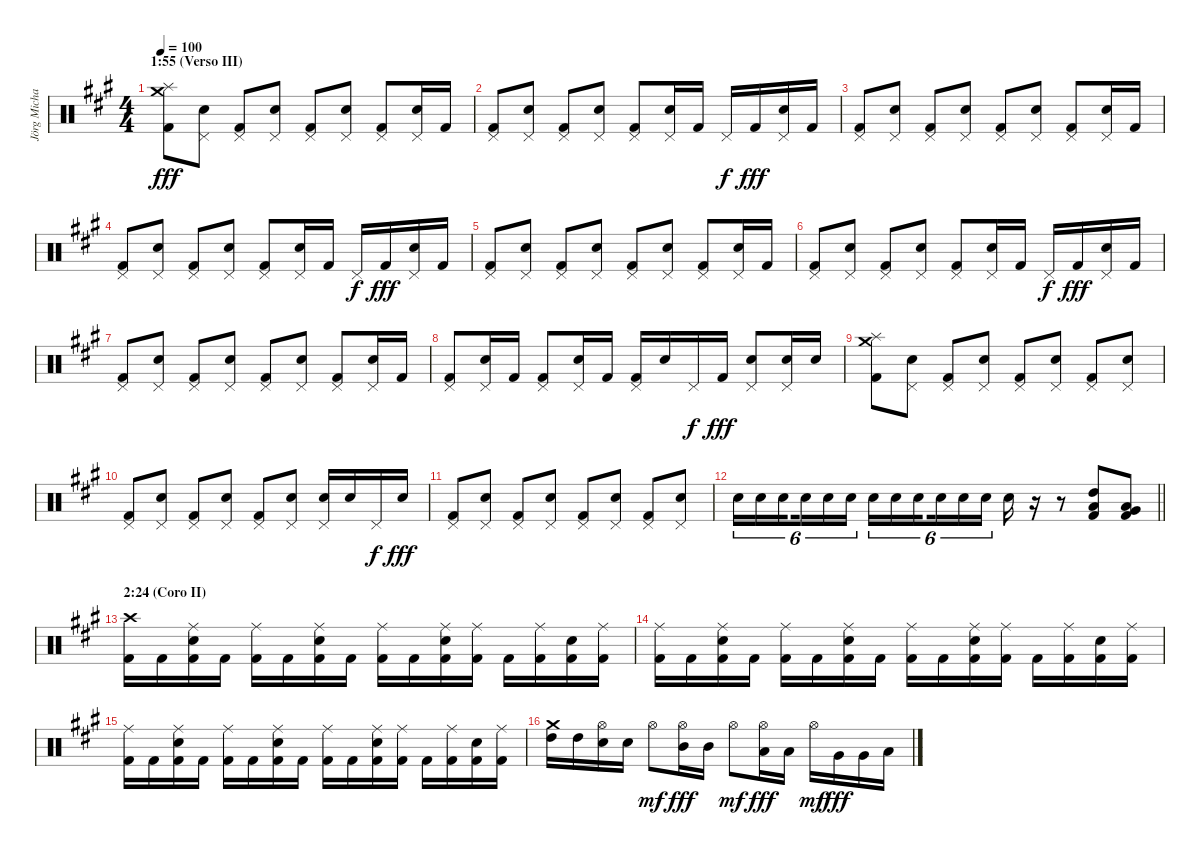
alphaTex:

\track ("Jörg Michael (Batería)" "Jörg Micha") {instrument percussion}
\staff {score}
\articulation defaults
\ts (4 4)
\section ("" "1:55 (Verso III)")
\tempo 100
\clef neutral
\ks a
("Crash medium (hit)" "Splash (hit)" "Kick (hit) 2").8{dy fff} ("Pedal Hi-Hat (hit)" "Snare (hit) 2").8 ("Pedal Hi-Hat (hit)" "Kick (hit) 2").8 ("Pedal Hi-Hat (hit)" "Snare (hit) 2").8 ("Pedal Hi-Hat (hit)" "Kick (hit) 2").8 ("Pedal Hi-Hat (hit)" "Snare (hit) 2").8 ("Pedal Hi-Hat (hit)" "Kick (hit) 2").8 ("Pedal Hi-Hat (hit)" "Snare (hit) 2").16 "Kick (hit) 2".16 |
("Pedal Hi-Hat (hit)" "Kick (hit) 2").8 ("Pedal Hi-Hat (hit)" "Snare (hit) 2").8 ("Pedal Hi-Hat (hit)" "Kick (hit) 2").8 ("Pedal Hi-Hat (hit)" "Snare (hit) 2").8 ("Pedal Hi-Hat (hit)" "Kick (hit) 2").8 ("Pedal Hi-Hat (hit)" "Snare (hit) 2").16 "Kick (hit) 2".16 "Pedal Hi-Hat (hit)".16{dy f} "Kick (hit) 2".16{dy fff} ("Pedal Hi-Hat (hit)" "Snare (hit) 2").16 "Kick (hit) 2".16 |
("Pedal Hi-Hat (hit)" "Kick (hit) 2").8 ("Pedal Hi-Hat (hit)" "Snare (hit) 2").8 ("Pedal Hi-Hat (hit)" "Kick (hit) 2").8 ("Pedal Hi-Hat (hit)" "Snare (hit) 2").8 ("Pedal Hi-Hat (hit)" "Kick (hit) 2").8 ("Pedal Hi-Hat (hit)" "Snare (hit) 2").8 ("Pedal Hi-Hat (hit)" "Kick (hit) 2").8 ("Pedal Hi-Hat (hit)" "Snare (hit) 2").16 "Kick (hit) 2".16 |
("Pedal Hi-Hat (hit)" "Kick (hit) 2").8 ("Pedal Hi-Hat (hit)" "Snare (hit) 2").8 ("Pedal Hi-Hat (hit)" "Kick (hit) 2").8 ("Pedal Hi-Hat (hit)" "Snare (hit) 2").8 ("Pedal Hi-Hat (hit)" "Kick (hit) 2").8 ("Pedal Hi-Hat (hit)" "Snare (hit) 2").16 "Kick (hit) 2".16 "Pedal Hi-Hat (hit)".16{dy f} "Kick (hit) 2".16{dy fff} ("Pedal Hi-Hat (hit)" "Snare (hit) 2").16 "Kick (hit) 2".16 |
("Pedal Hi-Hat (hit)" "Kick (hit) 2").8 ("Pedal Hi-Hat (hit)" "Snare (hit) 2").8 ("Pedal Hi-Hat (hit)" "Kick (hit) 2").8 ("Pedal Hi-Hat (hit)" "Snare (hit) 2").8 ("Pedal Hi-Hat (hit)" "Kick (hit) 2").8 ("Pedal Hi-Hat (hit)" "Snare (hit) 2").8 ("Pedal Hi-Hat (hit)" "Kick (hit) 2").8 ("Pedal Hi-Hat (hit)" "Snare (hit) 2").16 "Kick (hit) 2".16 |
("Pedal Hi-Hat (hit)" "Kick (hit) 2").8 ("Pedal Hi-Hat (hit)" "Snare (hit) 2").8 ("Pedal Hi-Hat (hit)" "Kick (hit) 2").8 ("Pedal Hi-Hat (hit)" "Snare (hit) 2").8 ("Pedal Hi-Hat (hit)" "Kick (hit) 2").8 ("Pedal Hi-Hat (hit)" "Snare (hit) 2").16 "Kick (hit) 2".16 "Pedal Hi-Hat (hit)".16{dy f} "Kick (hit) 2".16{dy fff} ("Pedal Hi-Hat (hit)" "Snare (hit) 2").16 "Kick (hit) 2".16 |
("Pedal Hi-Hat (hit)" "Kick (hit) 2").8 ("Pedal Hi-Hat (hit)" "Snare (hit) 2").8 ("Pedal Hi-Hat (hit)" "Kick (hit) 2").8 ("Pedal Hi-Hat (hit)" "Snare (hit) 2").8 ("Pedal Hi-Hat (hit)" "Kick (hit) 2").8 ("Pedal Hi-Hat (hit)" "Snare (hit) 2").8 ("Pedal Hi-Hat (hit)" "Kick (hit) 2").8 ("Pedal Hi-Hat (hit)" "Snare (hit) 2").16 "Kick (hit) 2".16 |
("Pedal Hi-Hat (hit)" "Kick (hit) 2").8 ("Pedal Hi-Hat (hit)" "Snare (hit) 2").16 "Kick (hit) 2".16 ("Pedal Hi-Hat (hit)" "Kick (hit) 2").8 ("Pedal Hi-Hat (hit)" "Snare (hit) 2").16 "Kick (hit) 2".16 ("Pedal Hi-Hat (hit)" "Kick (hit) 2").16 "Snare (hit) 2".16 "Pedal Hi-Hat (hit)".16{dy f} "Kick (hit) 2".16{dy fff} ("Pedal Hi-Hat (hit)" "Snare (hit) 2").8 ("Pedal Hi-Hat (hit)" "Snare (hit) 2").16 "Snare (hit) 2".16 |
("Crash medium (hit)" "Splash (hit)" "Kick (hit) 2").8 ("Pedal Hi-Hat (hit)" "Snare (hit) 2").8 ("Pedal Hi-Hat (hit)" "Kick (hit) 2").8 ("Pedal Hi-Hat (hit)" "Snare (hit) 2").8 ("Pedal Hi-Hat (hit)" "Kick (hit) 2").8 ("Pedal Hi-Hat (hit)" "Snare (hit) 2").8 ("Pedal Hi-Hat (hit)" "Kick (hit) 2").8 ("Pedal Hi-Hat (hit)" "Snare (hit) 2").8 |
("Pedal Hi-Hat (hit)" "Kick (hit) 2").8 ("Pedal Hi-Hat (hit)" "Snare (hit) 2").8 ("Pedal Hi-Hat (hit)" "Kick (hit) 2").8 ("Pedal Hi-Hat (hit)" "Snare (hit) 2").8 ("Pedal Hi-Hat (hit)" "Kick (hit) 2").8 ("Pedal Hi-Hat (hit)" "Snare (hit) 2").8 ("Pedal Hi-Hat (hit)" "Snare (hit) 2").16 "Snare (hit) 2".16 "Pedal Hi-Hat (hit)".16{dy f} "Snare (hit) 2".16{dy fff} |
("Pedal Hi-Hat (hit)" "Kick (hit) 2").8 ("Pedal Hi-Hat (hit)" "Snare (hit) 2").8 ("Pedal Hi-Hat (hit)" "Kick (hit) 2").8 ("Pedal Hi-Hat (hit)" "Snare (hit) 2").8 ("Pedal Hi-Hat (hit)" "Kick (hit) 2").8 ("Pedal Hi-Hat (hit)" "Snare (hit) 2").8 ("Pedal Hi-Hat (hit)" "Kick (hit) 2").8 ("Pedal Hi-Hat (hit)" "Snare (hit) 2").8 |
\barLineRight lightlight "Snare (hit) 2".16{tu (6 4)} "Snare (hit) 2".16{tu (6 4)} "Snare (hit) 2".16{tu (6 4) beam splitsecondary} "Snare (hit) 2".16{tu (6 4)} "Snare (hit) 2".16{tu (6 4)} "Snare (hit) 2".16{tu (6 4)} "Snare (hit) 2".16{tu (6 4)} "Snare (hit) 2".16{tu (6 4)} "Snare (hit) 2".16{tu (6 4) beam splitsecondary} "Snare (hit) 2".16{tu (6 4)} "Snare (hit) 2".16{tu (6 4)} "Snare (hit) 2".16{tu (6 4)} "Snare (hit) 2".16
r.16 r.8 ("Low Tom (hit)" "High Tom (hit)" "Kick (hit) 2").8{volume 16} ("Low Floor Tom (hit)" "Very Low Tom (hit)" "Kick (hit) 2").8 |
\section ("" "2:24 (Coro II)")
("Crash high (hit)" "Kick (hit) 2").16{volume 13} "Kick (hit) 2".16 ("Ride (middle)" "Snare (hit) 2" "Kick (hit) 2").16 "Kick (hit) 2".16 ("Ride (middle)" "Kick (hit) 2").16 "Kick (hit) 2".16 ("Ride (middle)" "Snare (hit) 2" "Kick (hit) 2").16 "Kick (hit) 2".16 ("Ride (middle)" "Kick (hit) 2").16 "Kick (hit) 2".16 ("Ride (middle)" "Snare (hit) 2" "Kick (hit) 2").16 ("Ride (middle)" "Kick (hit) 2").16 "Kick (hit) 2".16 ("Ride (middle)" "Kick (hit) 2").16 ("Snare (hit) 2" "Kick (hit) 2").16 ("Ride (middle)" "Kick (hit) 2").16 |
("Ride (middle)" "Kick (hit) 2").16 "Kick (hit) 2".16 ("Ride (middle)" "Snare (hit) 2" "Kick (hit) 2").16 "Kick (hit) 2".16 ("Ride (middle)" "Kick (hit) 2").16 "Kick (hit) 2".16 ("Ride (middle)" "Snare (hit) 2" "Kick (hit) 2").16 "Kick (hit) 2".16 ("Ride (middle)" "Kick (hit) 2").16 "Kick (hit) 2".16 ("Ride (middle)" "Snare (hit) 2" "Kick (hit) 2").16 ("Ride (middle)" "Kick (hit) 2").16 "Kick (hit) 2".16 ("Ride (middle)" "Kick (hit) 2").16 ("Snare (hit) 2" "Kick (hit) 2").16 ("Ride (middle)" "Kick (hit) 2").16 |
("Ride (middle)" "Kick (hit) 2").16 "Kick (hit) 2".16 ("Ride (middle)" "Snare (hit) 2" "Kick (hit) 2").16 "Kick (hit) 2".16 ("Ride (middle)" "Kick (hit) 2").16 "Kick (hit) 2".16 ("Ride (middle)" "Snare (hit) 2" "Kick (hit) 2").16 "Kick (hit) 2".16 ("Ride (middle)" "Kick (hit) 2").16 "Kick (hit) 2".16 ("Ride (middle)" "Snare (hit) 2" "Kick (hit) 2").16 ("Ride (middle)" "Kick (hit) 2").16 "Kick (hit) 2".16 ("Ride (middle)" "Kick (hit) 2").16 ("Snare (hit) 2" "Kick (hit) 2").16 ("Ride (middle)" "Kick (hit) 2").16 |
("Crash medium (hit)" "High Tom (hit)").16 "High Tom (hit)".16 ("Hi-Hat (open)" "Snare (hit) 2").16 "Snare (hit) 2".16 "Hi-Hat (open)".8{dy mf} ("Hi-Hat (open)" "Mid Tom (hit)").16{dy fff} "Mid Tom (hit)".16 "Hi-Hat (open)".8{dy mf} ("Hi-Hat (open)" "Low Tom (hit)").16{dy fff} "Low Tom (hit)".16 "Hi-Hat (open)".16{dy mf} "Very Low Tom (hit)".16{dy fff} "Very Low Tom (hit)".16 "Low Floor Tom (hit)".16
